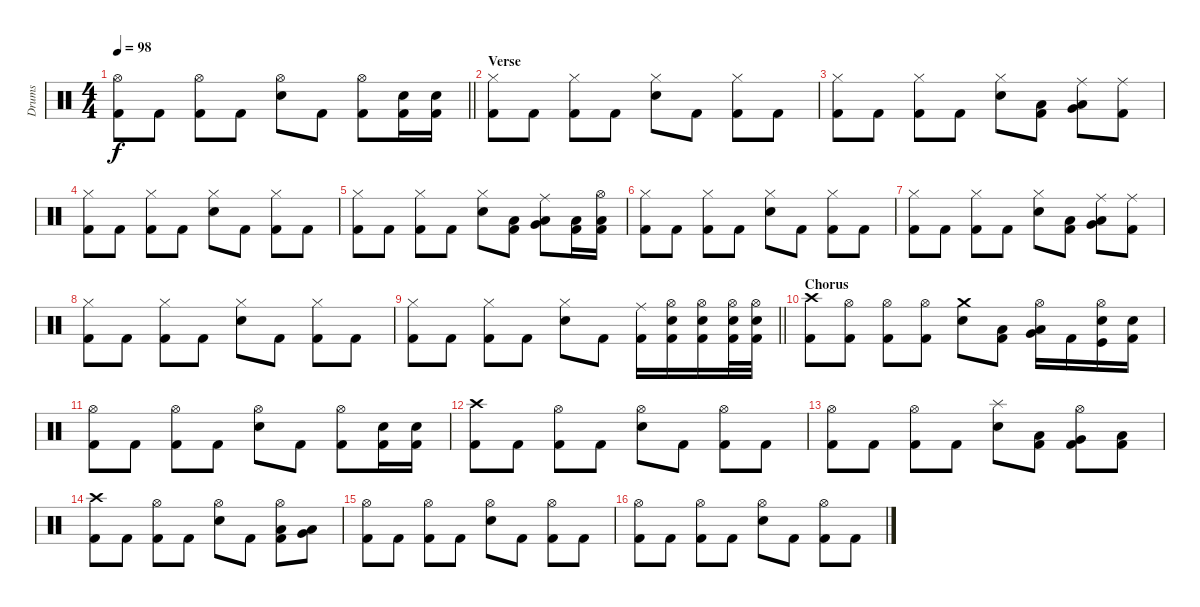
\track ("Drums" "Drums") {instrument percussion}
\staff {score}
\articulation defaults
\ts (4 4)
\tempo 98
\clef neutral
\barLineRight lightlight
\ks c
("Hi-Hat (open)" "Kick (hit) 2").8{dy f} "Kick (hit) 2".8 ("Hi-Hat (open)" "Kick (hit) 2").8 "Kick (hit) 2".8 ("Hi-Hat (open)" "Snare (hit) 2").8 "Kick (hit) 2".8 ("Hi-Hat (open)" "Kick (hit) 2").8 ("Kick (hit) 2" "Snare (hit) 2").16 ("Kick (hit) 2" "Snare (hit) 2").16 |
\section ("" "Verse")
("Hi-Hat (closed)" "Kick (hit) 2").8 "Kick (hit) 2".8 ("Hi-Hat (closed)" "Kick (hit) 2").8 "Kick (hit) 2".8 ("Hi-Hat (closed)" "Snare (hit) 2").8 "Kick (hit) 2".8 ("Hi-Hat (closed)" "Kick (hit) 2").8 "Kick (hit) 2".8 |
("Hi-Hat (closed)" "Kick (hit) 2").8 "Kick (hit) 2".8 ("Hi-Hat (closed)" "Kick (hit) 2").8 "Kick (hit) 2".8 ("Hi-Hat (closed)" "Snare (hit) 2").8 ("Kick (hit) 2" "Low Tom (hit)").8 ("Ride (middle)" "Very Low Tom (hit)" "Low Floor Tom (hit)").8 ("Kick (hit) 2" "Ride (middle)").8 |
("Hi-Hat (closed)" "Kick (hit) 2").8 "Kick (hit) 2".8 ("Hi-Hat (closed)" "Kick (hit) 2").8 "Kick (hit) 2".8 ("Hi-Hat (closed)" "Snare (hit) 2").8 "Kick (hit) 2".8 ("Hi-Hat (closed)" "Kick (hit) 2").8 "Kick (hit) 2".8 |
("Hi-Hat (closed)" "Kick (hit) 2").8 "Kick (hit) 2".8 ("Hi-Hat (closed)" "Kick (hit) 2").8 "Kick (hit) 2".8 ("Hi-Hat (closed)" "Snare (hit) 2").8 ("Kick (hit) 2" "Low Tom (hit)").8 ("Ride (middle)" "Very Low Tom (hit)" "Low Floor Tom (hit)").8 ("Kick (hit) 2" "Low Floor Tom (hit)").16 ("Low Floor Tom (hit)" "Kick (hit) 2" "Hi-Hat (open)").16 |
("Hi-Hat (closed)" "Kick (hit) 2").8 "Kick (hit) 2".8 ("Hi-Hat (closed)" "Kick (hit) 2").8 "Kick (hit) 2".8 ("Hi-Hat (closed)" "Snare (hit) 2").8 "Kick (hit) 2".8 ("Hi-Hat (closed)" "Kick (hit) 2").8 "Kick (hit) 2".8 |
("Hi-Hat (closed)" "Kick (hit) 2").8 "Kick (hit) 2".8 ("Hi-Hat (closed)" "Kick (hit) 2").8 "Kick (hit) 2".8 ("Hi-Hat (closed)" "Snare (hit) 2").8 ("Kick (hit) 2" "Low Tom (hit)").8 ("Ride (middle)" "Very Low Tom (hit)" "Low Floor Tom (hit)").8 ("Kick (hit) 2" "Ride (middle)").8 |
("Hi-Hat (closed)" "Kick (hit) 2").8 "Kick (hit) 2".8 ("Hi-Hat (closed)" "Kick (hit) 2").8 "Kick (hit) 2".8 ("Hi-Hat (closed)" "Snare (hit) 2").8 "Kick (hit) 2".8 ("Hi-Hat (closed)" "Kick (hit) 2").8 "Kick (hit) 2".8 |
\barLineRight lightlight
("Hi-Hat (closed)" "Kick (hit) 2").8 "Kick (hit) 2".8 ("Hi-Hat (closed)" "Kick (hit) 2").8 "Kick (hit) 2".8 ("Hi-Hat (closed)" "Snare (hit) 2").8 "Kick (hit) 2".8 ("Ride (middle)" "Kick (hit) 2").16 ("Kick (hit) 2" "Snare (hit) 2" "Hi-Hat (open)").16 ("Snare (hit) 2" "Kick (hit) 2" "Hi-Hat (open)").16 ("Snare (hit) 2" "Kick (hit) 2" "Hi-Hat (open)").32 ("Hi-Hat (open)" "Snare (hit) 2" "Kick (hit) 2").32 |
\section ("" "Chorus")
("Crash high (hit)" "Kick (hit) 2").8 ("Kick (hit) 2" "Hi-Hat (open)").8 ("Hi-Hat (open)" "Kick (hit) 2").8 ("Kick (hit) 2" "Hi-Hat (open)").8 ("Crash medium (hit)" "Snare (hit) 2").8 ("Kick (hit) 2" "Low Tom (hit)").8 ("Hi-Hat (open)" "Very Low Tom (hit)" "Low Floor Tom (hit)").16 "Kick (hit) 2".16 ("Snare (hit) 2" "Kick (hit)" "Hi-Hat (open)").16 ("Kick (hit) 2" "Snare (hit) 2").16 |
("Hi-Hat (open)" "Kick (hit) 2").8 "Kick (hit) 2".8 ("Hi-Hat (open)" "Kick (hit) 2").8 "Kick (hit) 2".8 ("Hi-Hat (open)" "Snare (hit) 2").8 "Kick (hit) 2".8 ("Hi-Hat (open)" "Kick (hit) 2").8 ("Kick (hit) 2" "Snare (hit) 2").16 ("Snare (hit) 2" "Kick (hit) 2").16 |
("Crash high (hit)" "Kick (hit) 2").8 "Kick (hit) 2".8 ("Hi-Hat (open)" "Kick (hit) 2").8 "Kick (hit) 2".8 ("Hi-Hat (open)" "Snare (hit) 2").8 "Kick (hit) 2".8 ("Hi-Hat (open)" "Kick (hit) 2").8 "Kick (hit) 2".8 |
("Hi-Hat (open)" "Kick (hit) 2").8 "Kick (hit) 2".8 ("Hi-Hat (open)" "Kick (hit) 2").8 "Kick (hit) 2".8 ("Splash (hit)" "Snare (hit) 2").8 ("Kick (hit) 2" "Low Tom (hit)").8 ("Hi-Hat (open)" "Kick (hit) 2" "Very Low Tom (hit)").8 ("Kick (hit) 2" "Low Floor Tom (hit)").8 |
("Crash high (hit)" "Kick (hit) 2").8 "Kick (hit) 2".8 ("Hi-Hat (open)" "Kick (hit) 2").8 "Kick (hit) 2".8 ("Hi-Hat (open)" "Snare (hit) 2").8 "Kick (hit) 2".8 ("Hi-Hat (open)" "Kick (hit) 2" "Low Floor Tom (hit)").8 ("Very Low Tom (hit)" "Low Floor Tom (hit)").8 |
("Hi-Hat (open)" "Kick (hit) 2").8 "Kick (hit) 2".8 ("Hi-Hat (open)" "Kick (hit) 2").8 "Kick (hit) 2".8 ("Hi-Hat (open)" "Snare (hit) 2").8 "Kick (hit) 2".8 ("Hi-Hat (open)" "Kick (hit) 2").8 "Kick (hit) 2".8 |
("Hi-Hat (open)" "Kick (hit) 2").8 "Kick (hit) 2".8 ("Hi-Hat (open)" "Kick (hit) 2").8 "Kick (hit) 2".8 ("Hi-Hat (open)" "Snare (hit) 2").8 "Kick (hit) 2".8 ("Hi-Hat (open)" "Kick (hit) 2").8 "Kick (hit) 2".8
